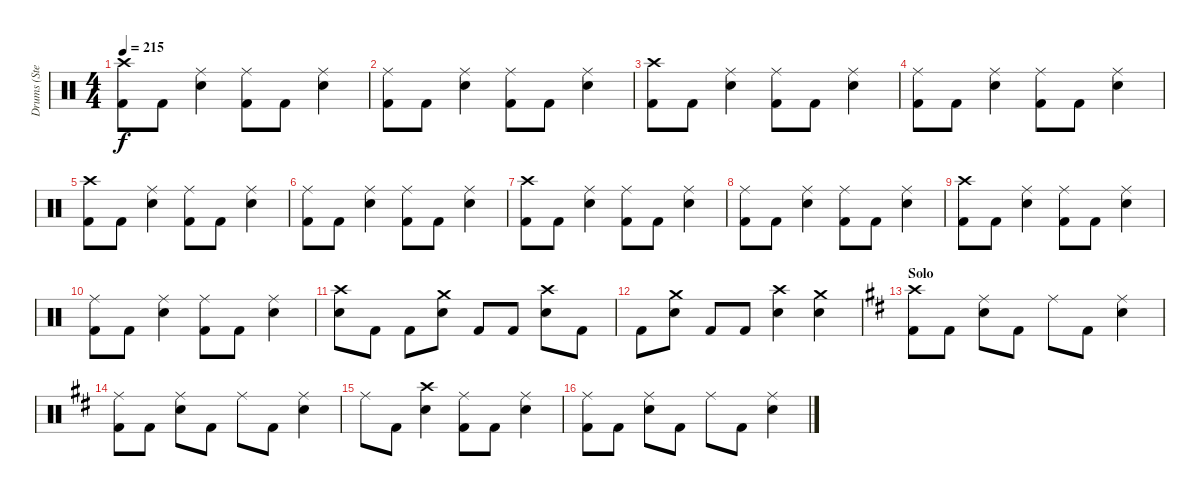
\track ("Drums (Steven)" "Drums (Ste") {instrument percussion}
\staff {score}
\articulation defaults
\ts (4 4)
\tempo 215
\clef neutral
\ks c
("Crash high (hit)" "Kick (hit) 2").8{dy f} "Kick (hit) 2".8 ("Ride (middle)" "Snare (hit) 2").4 ("Ride (middle)" "Kick (hit) 2").8 "Kick (hit) 2".8 ("Ride (middle)" "Snare (hit) 2").4 |
("Ride (middle)" "Kick (hit) 2").8 "Kick (hit) 2".8 ("Ride (middle)" "Snare (hit) 2").4 ("Ride (middle)" "Kick (hit) 2").8 "Kick (hit) 2".8 ("Ride (middle)" "Snare (hit) 2").4 |
("Crash high (hit)" "Kick (hit) 2").8 "Kick (hit) 2".8 ("Ride (middle)" "Snare (hit) 2").4 ("Ride (middle)" "Kick (hit) 2").8 "Kick (hit) 2".8 ("Ride (middle)" "Snare (hit) 2").4 |
("Ride (middle)" "Kick (hit) 2").8 "Kick (hit) 2".8 ("Ride (middle)" "Snare (hit) 2").4 ("Ride (middle)" "Kick (hit) 2").8 "Kick (hit) 2".8 ("Ride (middle)" "Snare (hit) 2").4 |
("Crash high (hit)" "Kick (hit) 2").8 "Kick (hit) 2".8 ("Ride (middle)" "Snare (hit) 2").4 ("Ride (middle)" "Kick (hit) 2").8 "Kick (hit) 2".8 ("Ride (middle)" "Snare (hit) 2").4 |
("Ride (middle)" "Kick (hit) 2").8 "Kick (hit) 2".8 ("Ride (middle)" "Snare (hit) 2").4 ("Ride (middle)" "Kick (hit) 2").8 "Kick (hit) 2".8 ("Ride (middle)" "Snare (hit) 2").4 |
("Crash high (hit)" "Kick (hit) 2").8 "Kick (hit) 2".8 ("Ride (middle)" "Snare (hit) 2").4 ("Ride (middle)" "Kick (hit) 2").8 "Kick (hit) 2".8 ("Ride (middle)" "Snare (hit) 2").4 |
("Ride (middle)" "Kick (hit) 2").8 "Kick (hit) 2".8 ("Ride (middle)" "Snare (hit) 2").4 ("Ride (middle)" "Kick (hit) 2").8 "Kick (hit) 2".8 ("Ride (middle)" "Snare (hit) 2").4 |
("Crash high (hit)" "Kick (hit) 2").8 "Kick (hit) 2".8 ("Ride (middle)" "Snare (hit) 2").4 ("Ride (middle)" "Kick (hit) 2").8 "Kick (hit) 2".8 ("Ride (middle)" "Snare (hit) 2").4 |
("Ride (middle)" "Kick (hit) 2").8 "Kick (hit) 2".8 ("Ride (middle)" "Snare (hit) 2").4 ("Ride (middle)" "Kick (hit) 2").8 "Kick (hit) 2".8 ("Ride (middle)" "Snare (hit) 2").4 |
("Crash high (hit)" "Snare (hit) 2").8 "Kick (hit) 2".8 "Kick (hit) 2".8 ("Crash medium (hit)" "Snare (hit) 2").8 "Kick (hit) 2".8 "Kick (hit) 2".8 ("Crash high (hit)" "Snare (hit) 2").8 "Kick (hit) 2".8 |
"Kick (hit) 2".8 ("Crash medium (hit)" "Snare (hit) 2").8 "Kick (hit) 2".8 "Kick (hit) 2".8 ("Crash high (hit)" "Snare (hit) 2").4 ("Crash medium (hit)" "Snare (hit) 2").4 |
\section ("" "Solo")
\ks d
("Crash high (hit)" "Kick (hit) 2").8 "Kick (hit) 2".8 ("Ride (middle)" "Snare (hit) 2").8 "Kick (hit) 2".8 "Ride (middle)".8 "Kick (hit) 2".8 ("Ride (middle)" "Snare (hit) 2").4 |
("Ride (middle)" "Kick (hit) 2").8 "Kick (hit) 2".8 ("Ride (middle)" "Snare (hit) 2").8 "Kick (hit) 2".8 "Ride (middle)".8 "Kick (hit) 2".8 ("Ride (middle)" "Snare (hit) 2").4 |
"Ride (middle)".8 "Kick (hit) 2".8 ("Crash high (hit)" "Snare (hit) 2").4 ("Ride (middle)" "Kick (hit) 2").8 "Kick (hit) 2".8 ("Ride (middle)" "Snare (hit) 2").4 |
("Ride (middle)" "Kick (hit) 2").8 "Kick (hit) 2".8 ("Ride (middle)" "Snare (hit) 2").8 "Kick (hit) 2".8 "Ride (middle)".8 "Kick (hit) 2".8 ("Ride (middle)" "Snare (hit) 2").4
